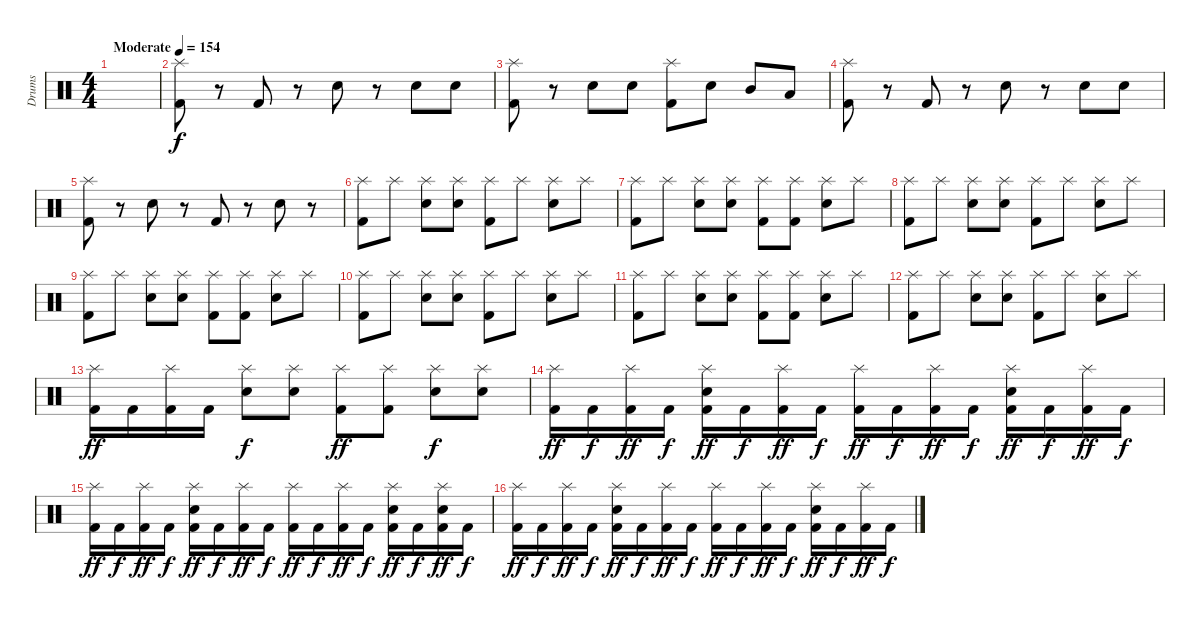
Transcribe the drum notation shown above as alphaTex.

\track ("Drums" "Drums") {instrument percussion}
\staff {score}
\articulation defaults
\ts (4 4)
\tempo (154 "Moderate")
\clef neutral
\ks c
|
("Splash (hit)" "Kick (hit) 2").8 r.8 "Kick (hit) 2".8 r.8 "Snare (hit) 2".8 r.8 "Snare (hit) 2".8 "Snare (hit) 2".8 |
("Splash (hit)" "Kick (hit) 2").8 r.8 "Snare (hit) 2".8 "Snare (hit) 2".8 ("Splash (hit)" "Kick (hit) 2").8 "Snare (hit) 2".8 "Mid Tom (hit)".8 "Low Tom (hit)".8 |
("Splash (hit)" "Kick (hit) 2").8 r.8 "Kick (hit) 2".8 r.8 "Snare (hit) 2".8 r.8 "Snare (hit) 2".8 "Snare (hit) 2".8 |
("Splash (hit)" "Kick (hit) 2").8 r.8 "Snare (hit) 2".8 r.8 "Kick (hit) 2".8 r.8 "Snare (hit) 2".8 r.8 |
("Splash (hit)" "Kick (hit) 2").8 "Splash (hit)".8 ("Splash (hit)" "Snare (hit) 2").8 ("Splash (hit)" "Snare (hit) 2").8 ("Splash (hit)" "Kick (hit) 2").8 "Splash (hit)".8 ("Splash (hit)" "Snare (hit) 2").8 "Splash (hit)".8 |
("Splash (hit)" "Kick (hit) 2").8 "Splash (hit)".8 ("Splash (hit)" "Snare (hit) 2").8 ("Splash (hit)" "Snare (hit) 2").8 ("Splash (hit)" "Kick (hit) 2").8 ("Splash (hit)" "Kick (hit) 2").8 ("Splash (hit)" "Snare (hit) 2").8 "Splash (hit)".8 |
("Splash (hit)" "Kick (hit) 2").8 "Splash (hit)".8 ("Splash (hit)" "Snare (hit) 2").8 ("Splash (hit)" "Snare (hit) 2").8 ("Splash (hit)" "Kick (hit) 2").8 "Splash (hit)".8 ("Splash (hit)" "Snare (hit) 2").8 "Splash (hit)".8 |
("Splash (hit)" "Kick (hit) 2").8 "Splash (hit)".8 ("Splash (hit)" "Snare (hit) 2").8 ("Splash (hit)" "Snare (hit) 2").8 ("Splash (hit)" "Kick (hit) 2").8 ("Splash (hit)" "Kick (hit) 2").8 ("Splash (hit)" "Snare (hit) 2").8 "Splash (hit)".8 |
("Splash (hit)" "Kick (hit) 2").8 "Splash (hit)".8 ("Splash (hit)" "Snare (hit) 2").8 ("Splash (hit)" "Snare (hit) 2").8 ("Splash (hit)" "Kick (hit) 2").8 "Splash (hit)".8 ("Splash (hit)" "Snare (hit) 2").8 "Splash (hit)".8 |
("Splash (hit)" "Kick (hit) 2").8 "Splash (hit)".8 ("Splash (hit)" "Snare (hit) 2").8 ("Splash (hit)" "Snare (hit) 2").8 ("Splash (hit)" "Kick (hit) 2").8 ("Splash (hit)" "Kick (hit) 2").8 ("Splash (hit)" "Snare (hit) 2").8 "Splash (hit)".8 |
("Splash (hit)" "Kick (hit) 2").8 "Splash (hit)".8 ("Splash (hit)" "Snare (hit) 2").8 ("Splash (hit)" "Snare (hit) 2").8 ("Splash (hit)" "Kick (hit) 2").8 "Splash (hit)".8 ("Splash (hit)" "Snare (hit) 2").8 "Splash (hit)".8 |
("Splash (hit)" "Kick (hit) 2").16{dy ff} "Kick (hit) 2".16 ("Splash (hit)" "Kick (hit) 2").16 "Kick (hit) 2".16 ("Splash (hit)" "Snare (hit) 2").8{dy f} ("Splash (hit)" "Snare (hit) 2").8 ("Splash (hit)" "Kick (hit) 2").8{dy ff} ("Splash (hit)" "Kick (hit) 2").8 ("Splash (hit)" "Snare (hit) 2").8{dy f} ("Splash (hit)" "Snare (hit) 2").8 |
("Splash (hit)" "Kick (hit) 2").16{dy ff} "Kick (hit) 2".16{dy f} ("Splash (hit)" "Kick (hit) 2").16{dy ff} "Kick (hit) 2".16{dy f} ("Splash (hit)" "Snare (hit) 2" "Kick (hit) 2").16{dy ff} "Kick (hit) 2".16{dy f} ("Splash (hit)" "Kick (hit) 2").16{dy ff} "Kick (hit) 2".16{dy f} ("Splash (hit)" "Kick (hit) 2").16{dy ff} "Kick (hit) 2".16{dy f} ("Splash (hit)" "Kick (hit) 2").16{dy ff} "Kick (hit) 2".16{dy f} ("Splash (hit)" "Snare (hit) 2" "Kick (hit) 2").16{dy ff} "Kick (hit) 2".16{dy f} ("Splash (hit)" "Kick (hit) 2").16{dy ff} "Kick (hit) 2".16{dy f} |
("Splash (hit)" "Kick (hit) 2").16{dy ff} "Kick (hit) 2".16{dy f} ("Splash (hit)" "Kick (hit) 2").16{dy ff} "Kick (hit) 2".16{dy f} ("Splash (hit)" "Snare (hit) 2" "Kick (hit) 2").16{dy ff} "Kick (hit) 2".16{dy f} ("Splash (hit)" "Kick (hit) 2").16{dy ff} "Kick (hit) 2".16{dy f} ("Splash (hit)" "Kick (hit) 2").16{dy ff} "Kick (hit) 2".16{dy f} ("Splash (hit)" "Kick (hit) 2").16{dy ff} "Kick (hit) 2".16{dy f} ("Splash (hit)" "Snare (hit) 2" "Kick (hit) 2").16{dy ff} "Kick (hit) 2".16{dy f} ("Splash (hit)" "Snare (hit) 2" "Kick (hit) 2").16{dy ff} "Kick (hit) 2".16{dy f} |
("Splash (hit)" "Kick (hit) 2").16{dy ff} "Kick (hit) 2".16{dy f} ("Splash (hit)" "Kick (hit) 2").16{dy ff} "Kick (hit) 2".16{dy f} ("Splash (hit)" "Snare (hit) 2" "Kick (hit) 2").16{dy ff} "Kick (hit) 2".16{dy f} ("Splash (hit)" "Kick (hit) 2").16{dy ff} "Kick (hit) 2".16{dy f} ("Splash (hit)" "Kick (hit) 2").16{dy ff} "Kick (hit) 2".16{dy f} ("Splash (hit)" "Kick (hit) 2").16{dy ff} "Kick (hit) 2".16{dy f} ("Splash (hit)" "Snare (hit) 2" "Kick (hit) 2").16{dy ff} "Kick (hit) 2".16{dy f} ("Splash (hit)" "Kick (hit) 2").16{dy ff} "Kick (hit) 2".16{dy f}
